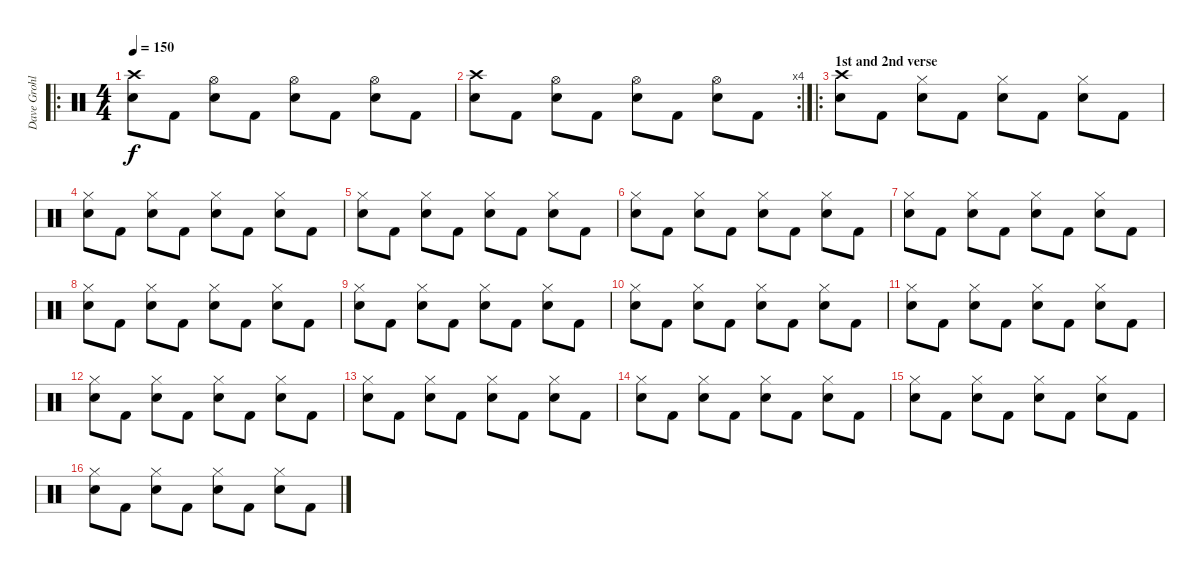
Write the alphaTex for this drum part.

\track ("Dave Grohl" "Dave Grohl") {instrument percussion}
\staff {score}
\articulation defaults
\ro
\ts (4 4)
\tempo 150
\clef neutral
\ks c
("Crash high (hit)" "Electric Snare (hit)").8{dy f} "Kick (hit) 2".8 ("Hi-Hat (open)" "Electric Snare (hit)").8 "Kick (hit) 2".8 ("Hi-Hat (open)" "Electric Snare (hit)").8 "Kick (hit) 2".8 ("Hi-Hat (open)" "Electric Snare (hit)").8 "Kick (hit) 2".8 |
\rc 4
("Crash high (hit)" "Electric Snare (hit)").8 "Kick (hit) 2".8 ("Hi-Hat (open)" "Electric Snare (hit)").8 "Kick (hit) 2".8 ("Hi-Hat (open)" "Electric Snare (hit)").8 "Kick (hit) 2".8 ("Hi-Hat (open)" "Electric Snare (hit)").8 "Kick (hit) 2".8 |
\ro
\section ("" "1st and 2nd verse")
("Crash high (hit)" "Electric Snare (hit)").8 "Kick (hit) 2".8 ("Hi-Hat (closed)" "Electric Snare (hit)").8 "Kick (hit) 2".8 ("Hi-Hat (closed)" "Electric Snare (hit)").8 "Kick (hit) 2".8 ("Hi-Hat (closed)" "Electric Snare (hit)").8 "Kick (hit) 2".8 |
("Hi-Hat (closed)" "Electric Snare (hit)").8 "Kick (hit) 2".8 ("Hi-Hat (closed)" "Electric Snare (hit)").8 "Kick (hit) 2".8 ("Hi-Hat (closed)" "Electric Snare (hit)").8 "Kick (hit) 2".8 ("Hi-Hat (closed)" "Electric Snare (hit)").8 "Kick (hit) 2".8 |
("Hi-Hat (closed)" "Electric Snare (hit)").8 "Kick (hit) 2".8 ("Hi-Hat (closed)" "Electric Snare (hit)").8 "Kick (hit) 2".8 ("Hi-Hat (closed)" "Electric Snare (hit)").8 "Kick (hit) 2".8 ("Hi-Hat (closed)" "Electric Snare (hit)").8 "Kick (hit) 2".8 |
("Hi-Hat (closed)" "Electric Snare (hit)").8 "Kick (hit) 2".8 ("Hi-Hat (closed)" "Electric Snare (hit)").8 "Kick (hit) 2".8 ("Hi-Hat (closed)" "Electric Snare (hit)").8 "Kick (hit) 2".8 ("Hi-Hat (closed)" "Electric Snare (hit)").8 "Kick (hit) 2".8 |
("Hi-Hat (closed)" "Electric Snare (hit)").8 "Kick (hit) 2".8 ("Hi-Hat (closed)" "Electric Snare (hit)").8 "Kick (hit) 2".8 ("Hi-Hat (closed)" "Electric Snare (hit)").8 "Kick (hit) 2".8 ("Hi-Hat (closed)" "Electric Snare (hit)").8 "Kick (hit) 2".8 |
("Hi-Hat (closed)" "Electric Snare (hit)").8 "Kick (hit) 2".8 ("Hi-Hat (closed)" "Electric Snare (hit)").8 "Kick (hit) 2".8 ("Hi-Hat (closed)" "Electric Snare (hit)").8 "Kick (hit) 2".8 ("Hi-Hat (closed)" "Electric Snare (hit)").8 "Kick (hit) 2".8 |
("Hi-Hat (closed)" "Electric Snare (hit)").8 "Kick (hit) 2".8 ("Hi-Hat (closed)" "Electric Snare (hit)").8 "Kick (hit) 2".8 ("Hi-Hat (closed)" "Electric Snare (hit)").8 "Kick (hit) 2".8 ("Hi-Hat (closed)" "Electric Snare (hit)").8 "Kick (hit) 2".8 |
("Hi-Hat (closed)" "Electric Snare (hit)").8 "Kick (hit) 2".8 ("Hi-Hat (closed)" "Electric Snare (hit)").8 "Kick (hit) 2".8 ("Hi-Hat (closed)" "Electric Snare (hit)").8 "Kick (hit) 2".8 ("Hi-Hat (closed)" "Electric Snare (hit)").8 "Kick (hit) 2".8 |
("Hi-Hat (closed)" "Electric Snare (hit)").8 "Kick (hit) 2".8 ("Hi-Hat (closed)" "Electric Snare (hit)").8 "Kick (hit) 2".8 ("Hi-Hat (closed)" "Electric Snare (hit)").8 "Kick (hit) 2".8 ("Hi-Hat (closed)" "Electric Snare (hit)").8 "Kick (hit) 2".8 |
("Hi-Hat (closed)" "Electric Snare (hit)").8 "Kick (hit) 2".8 ("Hi-Hat (closed)" "Electric Snare (hit)").8 "Kick (hit) 2".8 ("Hi-Hat (closed)" "Electric Snare (hit)").8 "Kick (hit) 2".8 ("Hi-Hat (closed)" "Electric Snare (hit)").8 "Kick (hit) 2".8 |
("Hi-Hat (closed)" "Electric Snare (hit)").8 "Kick (hit) 2".8 ("Hi-Hat (closed)" "Electric Snare (hit)").8 "Kick (hit) 2".8 ("Hi-Hat (closed)" "Electric Snare (hit)").8 "Kick (hit) 2".8 ("Hi-Hat (closed)" "Electric Snare (hit)").8 "Kick (hit) 2".8 |
("Hi-Hat (closed)" "Electric Snare (hit)").8 "Kick (hit) 2".8 ("Hi-Hat (closed)" "Electric Snare (hit)").8 "Kick (hit) 2".8 ("Hi-Hat (closed)" "Electric Snare (hit)").8 "Kick (hit) 2".8 ("Hi-Hat (closed)" "Electric Snare (hit)").8 "Kick (hit) 2".8 |
("Hi-Hat (closed)" "Electric Snare (hit)").8 "Kick (hit) 2".8 ("Hi-Hat (closed)" "Electric Snare (hit)").8 "Kick (hit) 2".8 ("Hi-Hat (closed)" "Electric Snare (hit)").8 "Kick (hit) 2".8 ("Hi-Hat (closed)" "Electric Snare (hit)").8 "Kick (hit) 2".8 |
("Hi-Hat (closed)" "Electric Snare (hit)").8 "Kick (hit) 2".8 ("Hi-Hat (closed)" "Electric Snare (hit)").8 "Kick (hit) 2".8 ("Hi-Hat (closed)" "Electric Snare (hit)").8 "Kick (hit) 2".8 ("Hi-Hat (closed)" "Electric Snare (hit)").8 "Kick (hit) 2".8
